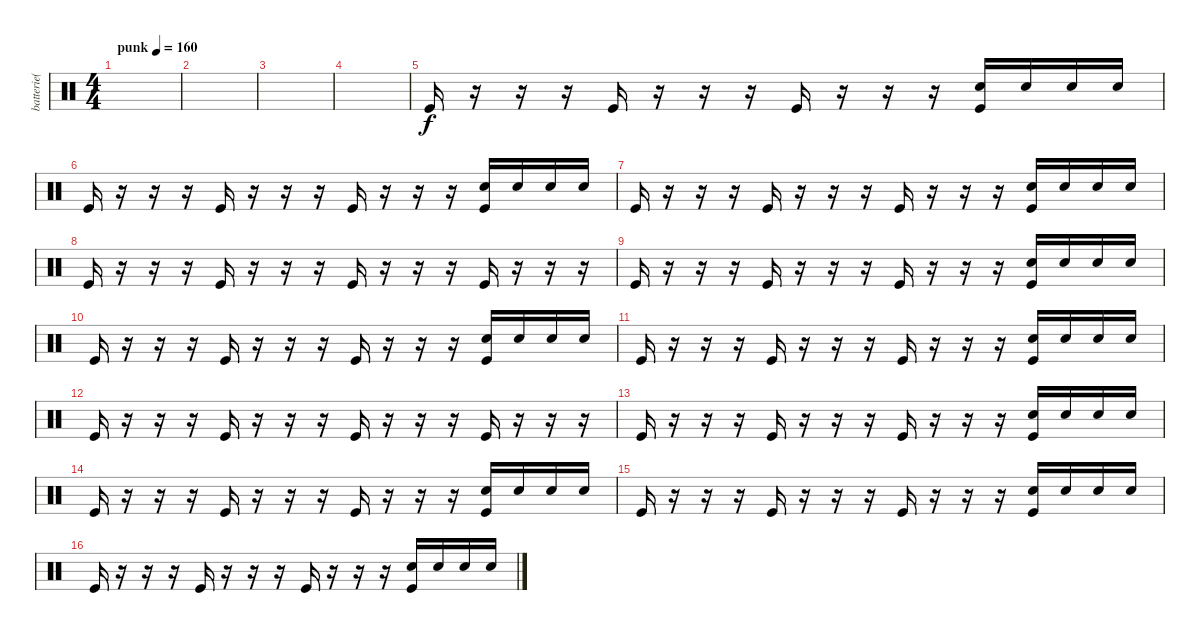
\track ("batterie( Megger )" "batterie( ") {instrument percussion}
\staff {score}
\articulation defaults
\ts (4 4)
\tempo (160 "punk")
\clef neutral
\ks c
|
|
|
|
"Kick (hit)".16 r.16 r.16 r.16 "Kick (hit)".16 r.16 r.16 r.16 "Kick (hit)".16 r.16 r.16 r.16 ("Snare (hit) 2" "Kick (hit)").16 "Snare (hit) 2".16 "Snare (hit) 2".16 "Snare (hit) 2".16 |
"Kick (hit)".16 r.16 r.16 r.16 "Kick (hit)".16 r.16 r.16 r.16 "Kick (hit)".16 r.16 r.16 r.16 ("Snare (hit) 2" "Kick (hit)").16 "Snare (hit) 2".16 "Snare (hit) 2".16 "Snare (hit) 2".16 |
"Kick (hit)".16 r.16 r.16 r.16 "Kick (hit)".16 r.16 r.16 r.16 "Kick (hit)".16 r.16 r.16 r.16 ("Snare (hit) 2" "Kick (hit)").16 "Snare (hit) 2".16 "Snare (hit) 2".16 "Snare (hit) 2".16 |
"Kick (hit)".16 r.16 r.16 r.16 "Kick (hit)".16 r.16 r.16 r.16 "Kick (hit)".16 r.16 r.16 r.16 "Kick (hit)".16 r.16 r.16 r.16 |
"Kick (hit)".16 r.16 r.16 r.16 "Kick (hit)".16 r.16 r.16 r.16 "Kick (hit)".16 r.16 r.16 r.16 ("Snare (hit) 2" "Kick (hit)").16 "Snare (hit) 2".16 "Snare (hit) 2".16 "Snare (hit) 2".16 |
"Kick (hit)".16 r.16 r.16 r.16 "Kick (hit)".16 r.16 r.16 r.16 "Kick (hit)".16 r.16 r.16 r.16 ("Snare (hit) 2" "Kick (hit)").16 "Snare (hit) 2".16 "Snare (hit) 2".16 "Snare (hit) 2".16 |
"Kick (hit)".16 r.16 r.16 r.16 "Kick (hit)".16 r.16 r.16 r.16 "Kick (hit)".16 r.16 r.16 r.16 ("Snare (hit) 2" "Kick (hit)").16 "Snare (hit) 2".16 "Snare (hit) 2".16 "Snare (hit) 2".16 |
"Kick (hit)".16 r.16 r.16 r.16 "Kick (hit)".16 r.16 r.16 r.16 "Kick (hit)".16 r.16 r.16 r.16 "Kick (hit)".16 r.16 r.16 r.16 |
"Kick (hit)".16 r.16 r.16 r.16 "Kick (hit)".16 r.16 r.16 r.16 "Kick (hit)".16 r.16 r.16 r.16 ("Snare (hit) 2" "Kick (hit)").16 "Snare (hit) 2".16 "Snare (hit) 2".16 "Snare (hit) 2".16 |
"Kick (hit)".16 r.16 r.16 r.16 "Kick (hit)".16 r.16 r.16 r.16 "Kick (hit)".16 r.16 r.16 r.16 ("Snare (hit) 2" "Kick (hit)").16 "Snare (hit) 2".16 "Snare (hit) 2".16 "Snare (hit) 2".16 |
"Kick (hit)".16 r.16 r.16 r.16 "Kick (hit)".16 r.16 r.16 r.16 "Kick (hit)".16 r.16 r.16 r.16 ("Snare (hit) 2" "Kick (hit)").16 "Snare (hit) 2".16 "Snare (hit) 2".16 "Snare (hit) 2".16 |
"Kick (hit)".16 r.16 r.16 r.16 "Kick (hit)".16 r.16 r.16 r.16 "Kick (hit)".16 r.16 r.16 r.16 ("Snare (hit) 2" "Kick (hit)").16 "Snare (hit) 2".16 "Snare (hit) 2".16 "Snare (hit) 2".16
